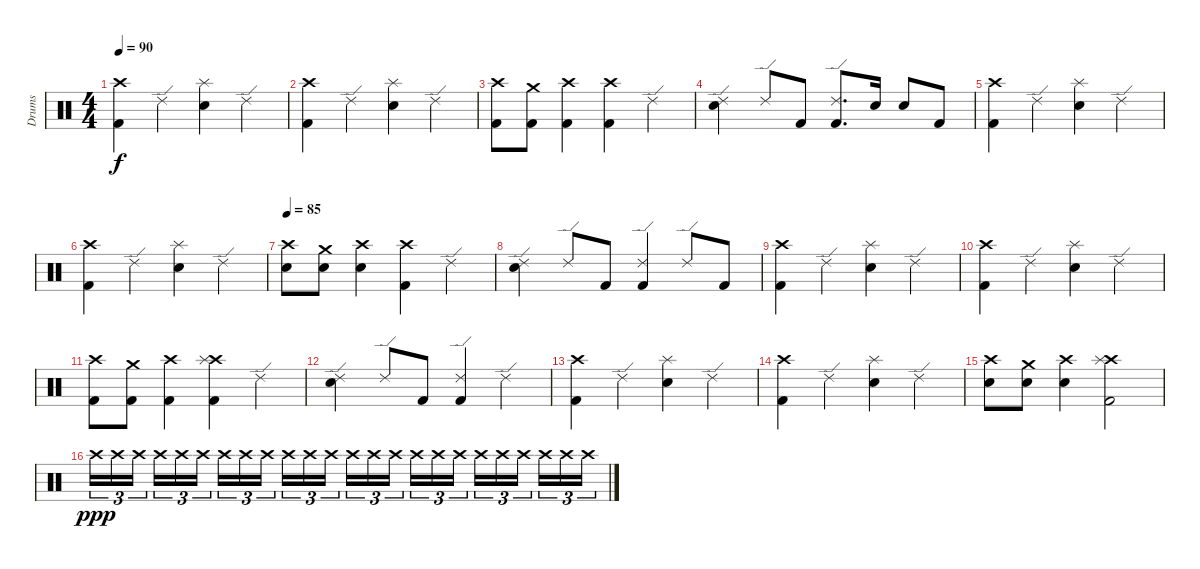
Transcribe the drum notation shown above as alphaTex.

\track ("Drums" "Drums") {instrument percussion}
\staff {score}
\articulation defaults
\ts (4 4)
\tempo 90
\clef neutral
\ks c
("Crash high (hit)" "Kick (hit) 2").4{dy f} "Ride (edge) 2".4 ("Splash (hit)" "Electric Snare (hit)").4 "Ride (edge) 2".4 |
("Crash high (hit)" "Kick (hit) 2").4 "Ride (edge) 2".4 ("Splash (hit)" "Electric Snare (hit)").4 "Ride (edge) 2".4 |
("Crash high (hit)" "Kick (hit) 2").8 ("Crash medium (hit)" "Kick (hit) 2").8 ("Crash high (hit)" "Kick (hit) 2").4 ("Crash high (hit)" "Kick (hit) 2").4 "Ride (edge) 2".4 |
("Ride (edge) 2" "Electric Snare (hit)").4 "Ride (edge) 2".8 "Kick (hit) 2".8 ("Ride (edge) 2" "Kick (hit) 2").8{d} "Electric Snare (hit)".16 "Electric Snare (hit)".8 "Kick (hit) 2".8 |
("Crash high (hit)" "Kick (hit) 2").4 "Ride (edge) 2".4 ("Splash (hit)" "Electric Snare (hit)").4 "Ride (edge) 2".4 |
("Crash high (hit)" "Kick (hit) 2").4 "Ride (edge) 2".4 ("Splash (hit)" "Electric Snare (hit)").4 "Ride (edge) 2".4 |
\tempo 85
("Crash high (hit)" "Electric Snare (hit)").8 ("Crash medium (hit)" "Electric Snare (hit)").8 ("Crash high (hit)" "Electric Snare (hit)").4 ("Crash high (hit)" "Kick (hit) 2").4 "Ride (edge) 2".4 |
("Ride (edge) 2" "Electric Snare (hit)").4 "Ride (edge) 2".8 "Kick (hit) 2".8 ("Ride (edge) 2" "Kick (hit) 2").4 "Ride (edge) 2".8 "Kick (hit) 2".8 |
("Crash high (hit)" "Kick (hit) 2").4 "Ride (edge) 2".4 ("Splash (hit)" "Electric Snare (hit)").4 "Ride (edge) 2".4 |
("Crash high (hit)" "Kick (hit) 2").4 "Ride (edge) 2".4 ("Splash (hit)" "Electric Snare (hit)").4 "Ride (edge) 2".4 |
("Crash high (hit)" "Kick (hit) 2").8 ("Crash medium (hit)" "Kick (hit) 2").8 ("Crash high (hit)" "Kick (hit) 2").4 ("Crash high (hit)" "Splash (hit)" "Kick (hit) 2").4 "Ride (edge) 2".4 |
("Ride (edge) 2" "Electric Snare (hit)").4 "Ride (edge) 2".8 "Kick (hit) 2".8 ("Ride (edge) 2" "Kick (hit) 2").4 "Ride (edge) 2".4 |
("Crash high (hit)" "Kick (hit) 2").4 "Ride (edge) 2".4 ("Splash (hit)" "Electric Snare (hit)").4 "Ride (edge) 2".4 |
("Crash high (hit)" "Kick (hit) 2").4 "Ride (edge) 2".4 ("Splash (hit)" "Electric Snare (hit)").4 "Ride (edge) 2".4 |
("Crash high (hit)" "Electric Snare (hit)").8 ("Crash medium (hit)" "Electric Snare (hit)").8 ("Crash high (hit)" "Electric Snare (hit)").4 ("Crash high (hit)" "Splash (hit)" "Kick (hit) 2").2 |
"Crash high (hit)".16{tu (3 2) dy ppp volume 0} "Crash high (hit)".16{tu (3 2)} "Crash high (hit)".16{tu (3 2) beam splitsecondary} "Crash high (hit)".16{tu (3 2)} "Crash high (hit)".16{tu (3 2)} "Crash high (hit)".16{tu (3 2)} "Crash high (hit)".16{tu (3 2)} "Crash high (hit)".16{tu (3 2)} "Crash high (hit)".16{tu (3 2) beam splitsecondary} "Crash high (hit)".16{tu (3 2)} "Crash high (hit)".16{tu (3 2)} "Crash high (hit)".16{tu (3 2)} "Crash high (hit)".16{tu (3 2)} "Crash high (hit)".16{tu (3 2)} "Crash high (hit)".16{tu (3 2) beam splitsecondary} "Crash high (hit)".16{tu (3 2)} "Crash high (hit)".16{tu (3 2)} "Crash high (hit)".16{tu (3 2)} "Crash high (hit)".16{tu (3 2)} "Crash high (hit)".16{tu (3 2)} "Crash high (hit)".16{tu (3 2) beam splitsecondary} "Crash high (hit)".16{tu (3 2)} "Crash high (hit)".16{tu (3 2)} "Crash high (hit)".16{tu (3 2)}
